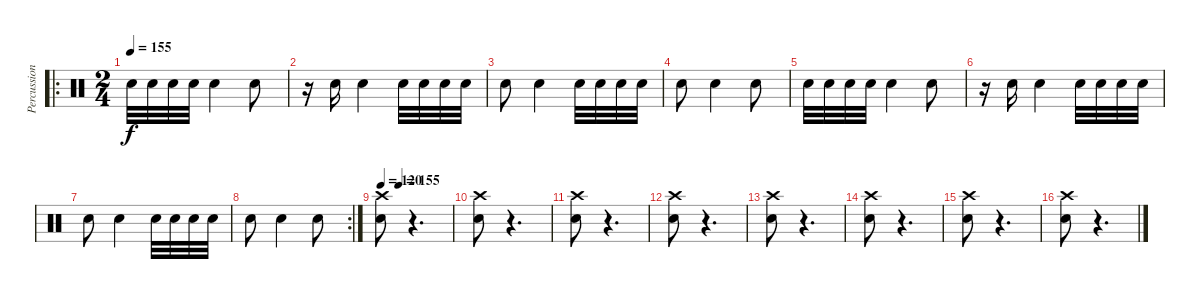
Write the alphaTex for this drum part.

\track ("Percussions" "Percussion") {instrument percussion}
\staff {score}
\articulation defaults
\ro
\ts (2 4)
\tempo 155
\tempo 120
\tempo 155
\clef neutral
\ks c "Electric Snare (hit)".32{dy f} "Electric Snare (hit)".32 "Electric Snare (hit)".32 "Electric Snare (hit)".32 "Electric Snare (hit)".4 "Electric Snare (hit)".8
|
r.16 "Electric Snare (hit)".16 "Electric Snare (hit)".4 "Electric Snare (hit)".32 "Electric Snare (hit)".32 "Electric Snare (hit)".32 "Electric Snare (hit)".32 |
"Electric Snare (hit)".8 "Electric Snare (hit)".4 "Electric Snare (hit)".32 "Electric Snare (hit)".32 "Electric Snare (hit)".32 "Electric Snare (hit)".32 |
"Electric Snare (hit)".8 "Electric Snare (hit)".4 "Electric Snare (hit)".8 |
"Electric Snare (hit)".32 "Electric Snare (hit)".32 "Electric Snare (hit)".32 "Electric Snare (hit)".32 "Electric Snare (hit)".4 "Electric Snare (hit)".8 |
r.16 "Electric Snare (hit)".16 "Electric Snare (hit)".4 "Electric Snare (hit)".32 "Electric Snare (hit)".32 "Electric Snare (hit)".32 "Electric Snare (hit)".32 |
"Electric Snare (hit)".8 "Electric Snare (hit)".4 "Electric Snare (hit)".32 "Electric Snare (hit)".32 "Electric Snare (hit)".32 "Electric Snare (hit)".32 |
\rc 2 "Electric Snare (hit)".8 "Electric Snare (hit)".4 "Electric Snare (hit)".8
|
\tempo 120
\tempo (155 0.25)
("Crash high (hit)" "Snare (hit) 2").8 r.4{d} |
("Crash high (hit)" "Snare (hit) 2").8 r.4{d} |
("Crash high (hit)" "Snare (hit) 2").8 r.4{d} |
("Crash high (hit)" "Snare (hit) 2").8 r.4{d} |
("Crash high (hit)" "Snare (hit) 2").8 r.4{d} |
("Crash high (hit)" "Snare (hit) 2").8 r.4{d} |
("Crash high (hit)" "Snare (hit) 2").8 r.4{d} |
("Crash high (hit)" "Snare (hit) 2").8 r.4{d}
